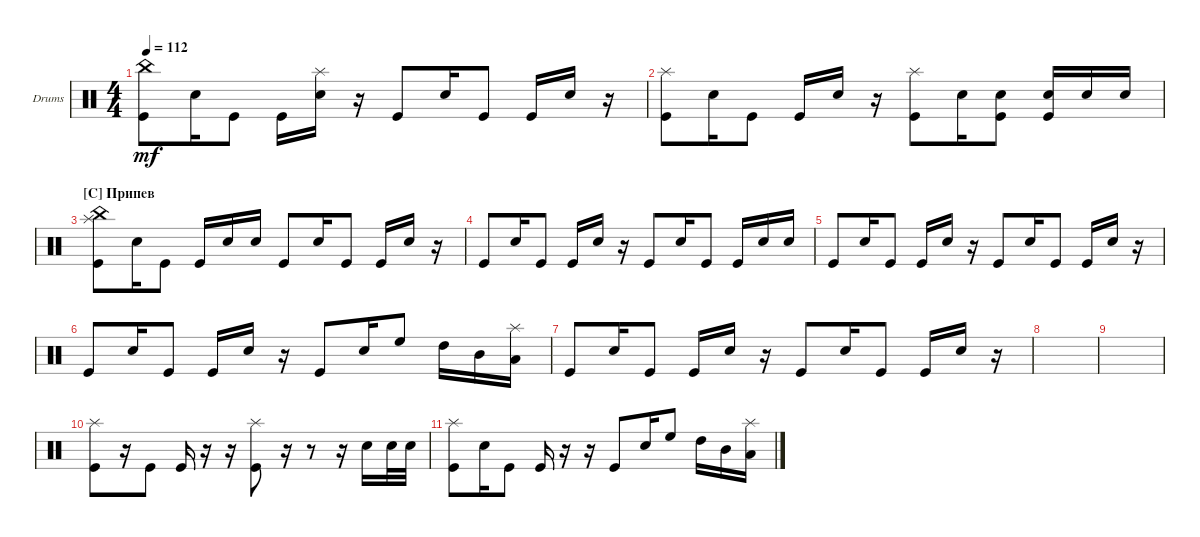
\defaultSystemsLayout 4
\bracketExtendMode groupsimilarinstruments
\firstSystemTrackNameOrientation horizontal
\otherSystemsTrackNameOrientation horizontal
\track ("Drumkit" "Drums") {instrument percussion}
\staff {score}
\articulation defaults
\ts (4 4)
\tempo 112
\clef neutral
\ks c
("Kick (hit)" "China (hit)").8{dy mf} "Snare (hit) 2".16 "Kick (hit)".8 "Kick (hit)".16 ("Snare (hit) 2" "Splash (hit)").16 r.16 "Kick (hit)".8 "Snare (hit) 2".16 "Kick (hit)".8 "Kick (hit)".16 "Snare (hit) 2".16 r.16 |
("Kick (hit)" "Splash (hit)").8 "Snare (hit) 2".16 "Kick (hit)".8 "Kick (hit)".16 "Snare (hit) 2".16 r.16 ("Kick (hit)" "Splash (hit)").8 "Snare (hit) 2".16 ("Kick (hit)" "Snare (hit) 2").8 ("Kick (hit)" "Snare (hit) 2").16 "Snare (hit) 2".16 "Snare (hit) 2".16 |
\section ("C" "Припев")
("Kick (hit)" "Splash (hit)" "China (hit)").8 "Snare (hit) 2".16 "Kick (hit)".8 "Kick (hit)".16 "Snare (hit) 2".16 "Snare (hit) 2".16 "Kick (hit)".8 "Snare (hit) 2".16 "Kick (hit)".8 "Kick (hit)".16 "Snare (hit) 2".16 r.16 |
"Kick (hit)".8 "Snare (hit) 2".16 "Kick (hit)".8 "Kick (hit)".16 "Snare (hit) 2".16 r.16 "Kick (hit)".8 "Snare (hit) 2".16 "Kick (hit)".8 "Kick (hit)".16 "Snare (hit) 2".16 "Snare (hit) 2".16 |
"Kick (hit)".8 "Snare (hit) 2".16 "Kick (hit)".8 "Kick (hit)".16 "Snare (hit) 2".16 r.16 "Kick (hit)".8 "Snare (hit) 2".16 "Kick (hit)".8 "Kick (hit)".16 "Snare (hit) 2".16 r.16 |
"Kick (hit)".8 "Snare (hit) 2".16 "Kick (hit)".8 "Kick (hit)".16 "Snare (hit) 2".16 r.16 "Kick (hit)".8 "Snare (hit) 2".16 "High Floor Tom (hit)".8 "High Tom (hit)".16 "Mid Tom (hit)".16 ("Low Tom (hit)" "Splash (hit)").16 |
"Kick (hit)".8 "Snare (hit) 2".16 "Kick (hit)".8 "Kick (hit)".16 "Snare (hit) 2".16 r.16 "Kick (hit)".8 "Snare (hit) 2".16 "Kick (hit)".8 "Kick (hit)".16 "Snare (hit) 2".16 r.16 |
|
|
("Kick (hit)" "Splash (hit)").8 r.16 "Kick (hit)".8 "Kick (hit)".16 r.16 r.16 ("Kick (hit)" "Splash (hit)").8 r.16 r.8 r.16 "Snare (hit) 2".16 "Snare (hit) 2".32 "Snare (hit) 2".32 |
("Kick (hit)" "Splash (hit)").8 "Snare (hit) 2".16 "Kick (hit)".8 "Kick (hit)".16 r.16 r.16 "Kick (hit)".8 "Snare (hit) 2".16 "High Floor Tom (hit)".8 "High Tom (hit)".16 "Mid Tom (hit)".16 ("Low Tom (hit)" "Splash (hit)").16
